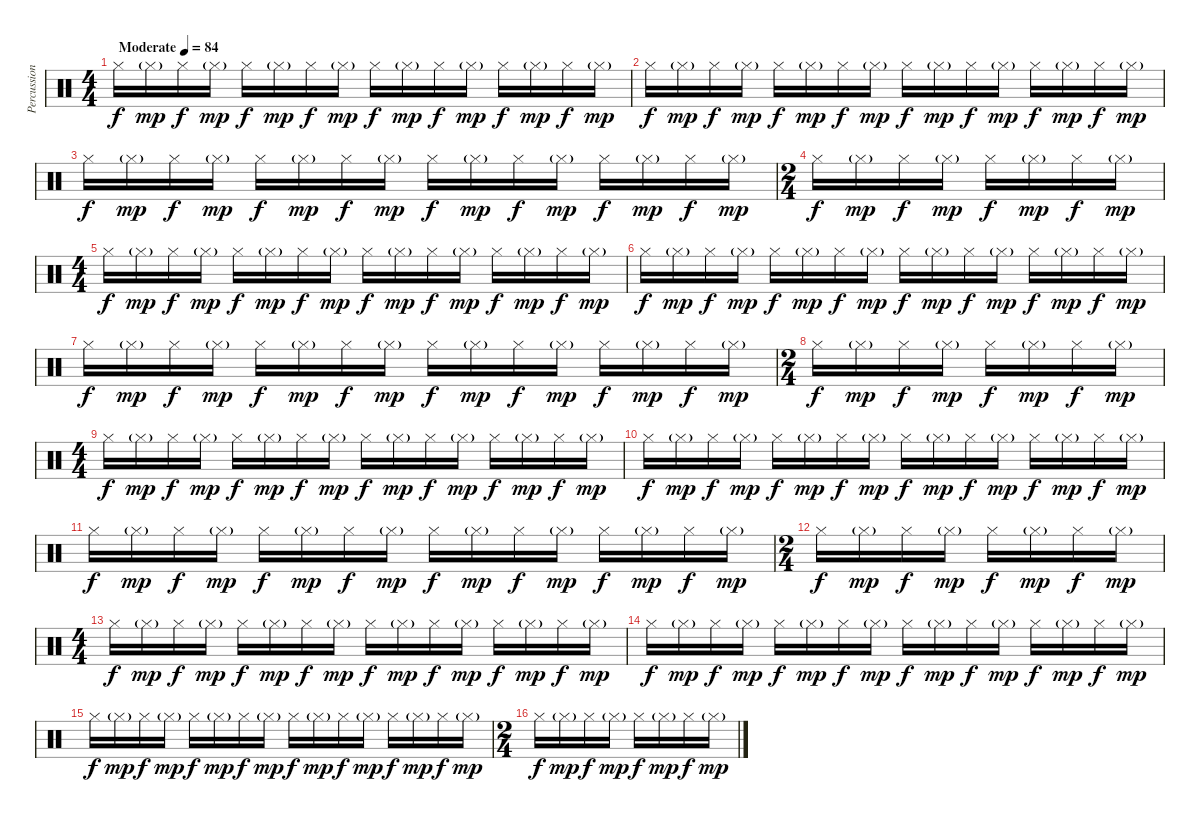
\track ("Percussion" "Percussion") {instrument percussion}
\staff {score}
\articulation defaults
\ts (4 4)
\tempo (84 "Moderate")
\clef neutral
\ks c "Hi-Hat (closed)".16{dy f} "Hi-Hat (closed)"{g}.16{dy mp} "Hi-Hat (closed)".16{dy f} "Hi-Hat (closed)"{g}.16{dy mp} "Hi-Hat (closed)".16{dy f} "Hi-Hat (closed)"{g}.16{dy mp} "Hi-Hat (closed)".16{dy f} "Hi-Hat (closed)"{g}.16{dy mp} "Hi-Hat (closed)".16{dy f} "Hi-Hat (closed)"{g}.16{dy mp} "Hi-Hat (closed)".16{dy f} "Hi-Hat (closed)"{g}.16{dy mp} "Hi-Hat (closed)".16{dy f} "Hi-Hat (closed)"{g}.16{dy mp} "Hi-Hat (closed)".16{dy f} "Hi-Hat (closed)"{g}.16{dy mp}
|
"Hi-Hat (closed)".16{dy f} "Hi-Hat (closed)"{g}.16{dy mp} "Hi-Hat (closed)".16{dy f} "Hi-Hat (closed)"{g}.16{dy mp} "Hi-Hat (closed)".16{dy f} "Hi-Hat (closed)"{g}.16{dy mp} "Hi-Hat (closed)".16{dy f} "Hi-Hat (closed)"{g}.16{dy mp} "Hi-Hat (closed)".16{dy f} "Hi-Hat (closed)"{g}.16{dy mp} "Hi-Hat (closed)".16{dy f} "Hi-Hat (closed)"{g}.16{dy mp} "Hi-Hat (closed)".16{dy f} "Hi-Hat (closed)"{g}.16{dy mp} "Hi-Hat (closed)".16{dy f} "Hi-Hat (closed)"{g}.16{dy mp} |
"Hi-Hat (closed)".16{dy f} "Hi-Hat (closed)"{g}.16{dy mp} "Hi-Hat (closed)".16{dy f} "Hi-Hat (closed)"{g}.16{dy mp} "Hi-Hat (closed)".16{dy f} "Hi-Hat (closed)"{g}.16{dy mp} "Hi-Hat (closed)".16{dy f} "Hi-Hat (closed)"{g}.16{dy mp} "Hi-Hat (closed)".16{dy f} "Hi-Hat (closed)"{g}.16{dy mp} "Hi-Hat (closed)".16{dy f} "Hi-Hat (closed)"{g}.16{dy mp} "Hi-Hat (closed)".16{dy f} "Hi-Hat (closed)"{g}.16{dy mp} "Hi-Hat (closed)".16{dy f} "Hi-Hat (closed)"{g}.16{dy mp} |
\ts (2 4)
"Hi-Hat (closed)".16{dy f} "Hi-Hat (closed)"{g}.16{dy mp} "Hi-Hat (closed)".16{dy f} "Hi-Hat (closed)"{g}.16{dy mp} "Hi-Hat (closed)".16{dy f} "Hi-Hat (closed)"{g}.16{dy mp} "Hi-Hat (closed)".16{dy f} "Hi-Hat (closed)"{g}.16{dy mp} |
\ts (4 4)
"Hi-Hat (closed)".16{dy f} "Hi-Hat (closed)"{g}.16{dy mp} "Hi-Hat (closed)".16{dy f} "Hi-Hat (closed)"{g}.16{dy mp} "Hi-Hat (closed)".16{dy f} "Hi-Hat (closed)"{g}.16{dy mp} "Hi-Hat (closed)".16{dy f} "Hi-Hat (closed)"{g}.16{dy mp} "Hi-Hat (closed)".16{dy f} "Hi-Hat (closed)"{g}.16{dy mp} "Hi-Hat (closed)".16{dy f} "Hi-Hat (closed)"{g}.16{dy mp} "Hi-Hat (closed)".16{dy f} "Hi-Hat (closed)"{g}.16{dy mp} "Hi-Hat (closed)".16{dy f} "Hi-Hat (closed)"{g}.16{dy mp} |
"Hi-Hat (closed)".16{dy f} "Hi-Hat (closed)"{g}.16{dy mp} "Hi-Hat (closed)".16{dy f} "Hi-Hat (closed)"{g}.16{dy mp} "Hi-Hat (closed)".16{dy f} "Hi-Hat (closed)"{g}.16{dy mp} "Hi-Hat (closed)".16{dy f} "Hi-Hat (closed)"{g}.16{dy mp} "Hi-Hat (closed)".16{dy f} "Hi-Hat (closed)"{g}.16{dy mp} "Hi-Hat (closed)".16{dy f} "Hi-Hat (closed)"{g}.16{dy mp} "Hi-Hat (closed)".16{dy f} "Hi-Hat (closed)"{g}.16{dy mp} "Hi-Hat (closed)".16{dy f} "Hi-Hat (closed)"{g}.16{dy mp} |
"Hi-Hat (closed)".16{dy f} "Hi-Hat (closed)"{g}.16{dy mp} "Hi-Hat (closed)".16{dy f} "Hi-Hat (closed)"{g}.16{dy mp} "Hi-Hat (closed)".16{dy f} "Hi-Hat (closed)"{g}.16{dy mp} "Hi-Hat (closed)".16{dy f} "Hi-Hat (closed)"{g}.16{dy mp} "Hi-Hat (closed)".16{dy f} "Hi-Hat (closed)"{g}.16{dy mp} "Hi-Hat (closed)".16{dy f} "Hi-Hat (closed)"{g}.16{dy mp} "Hi-Hat (closed)".16{dy f} "Hi-Hat (closed)"{g}.16{dy mp} "Hi-Hat (closed)".16{dy f} "Hi-Hat (closed)"{g}.16{dy mp} |
\ts (2 4)
"Hi-Hat (closed)".16{dy f} "Hi-Hat (closed)"{g}.16{dy mp} "Hi-Hat (closed)".16{dy f} "Hi-Hat (closed)"{g}.16{dy mp} "Hi-Hat (closed)".16{dy f} "Hi-Hat (closed)"{g}.16{dy mp} "Hi-Hat (closed)".16{dy f} "Hi-Hat (closed)"{g}.16{dy mp} |
\ts (4 4)
"Hi-Hat (closed)".16{dy f} "Hi-Hat (closed)"{g}.16{dy mp} "Hi-Hat (closed)".16{dy f} "Hi-Hat (closed)"{g}.16{dy mp} "Hi-Hat (closed)".16{dy f} "Hi-Hat (closed)"{g}.16{dy mp} "Hi-Hat (closed)".16{dy f} "Hi-Hat (closed)"{g}.16{dy mp} "Hi-Hat (closed)".16{dy f} "Hi-Hat (closed)"{g}.16{dy mp} "Hi-Hat (closed)".16{dy f} "Hi-Hat (closed)"{g}.16{dy mp} "Hi-Hat (closed)".16{dy f} "Hi-Hat (closed)"{g}.16{dy mp} "Hi-Hat (closed)".16{dy f} "Hi-Hat (closed)"{g}.16{dy mp} |
"Hi-Hat (closed)".16{dy f} "Hi-Hat (closed)"{g}.16{dy mp} "Hi-Hat (closed)".16{dy f} "Hi-Hat (closed)"{g}.16{dy mp} "Hi-Hat (closed)".16{dy f} "Hi-Hat (closed)"{g}.16{dy mp} "Hi-Hat (closed)".16{dy f} "Hi-Hat (closed)"{g}.16{dy mp} "Hi-Hat (closed)".16{dy f} "Hi-Hat (closed)"{g}.16{dy mp} "Hi-Hat (closed)".16{dy f} "Hi-Hat (closed)"{g}.16{dy mp} "Hi-Hat (closed)".16{dy f} "Hi-Hat (closed)"{g}.16{dy mp} "Hi-Hat (closed)".16{dy f} "Hi-Hat (closed)"{g}.16{dy mp} |
"Hi-Hat (closed)".16{dy f} "Hi-Hat (closed)"{g}.16{dy mp} "Hi-Hat (closed)".16{dy f} "Hi-Hat (closed)"{g}.16{dy mp} "Hi-Hat (closed)".16{dy f} "Hi-Hat (closed)"{g}.16{dy mp} "Hi-Hat (closed)".16{dy f} "Hi-Hat (closed)"{g}.16{dy mp} "Hi-Hat (closed)".16{dy f} "Hi-Hat (closed)"{g}.16{dy mp} "Hi-Hat (closed)".16{dy f} "Hi-Hat (closed)"{g}.16{dy mp} "Hi-Hat (closed)".16{dy f} "Hi-Hat (closed)"{g}.16{dy mp} "Hi-Hat (closed)".16{dy f} "Hi-Hat (closed)"{g}.16{dy mp} |
\ts (2 4)
"Hi-Hat (closed)".16{dy f} "Hi-Hat (closed)"{g}.16{dy mp} "Hi-Hat (closed)".16{dy f} "Hi-Hat (closed)"{g}.16{dy mp} "Hi-Hat (closed)".16{dy f} "Hi-Hat (closed)"{g}.16{dy mp} "Hi-Hat (closed)".16{dy f} "Hi-Hat (closed)"{g}.16{dy mp} |
\ts (4 4)
"Hi-Hat (closed)".16{dy f} "Hi-Hat (closed)"{g}.16{dy mp} "Hi-Hat (closed)".16{dy f} "Hi-Hat (closed)"{g}.16{dy mp} "Hi-Hat (closed)".16{dy f} "Hi-Hat (closed)"{g}.16{dy mp} "Hi-Hat (closed)".16{dy f} "Hi-Hat (closed)"{g}.16{dy mp} "Hi-Hat (closed)".16{dy f} "Hi-Hat (closed)"{g}.16{dy mp} "Hi-Hat (closed)".16{dy f} "Hi-Hat (closed)"{g}.16{dy mp} "Hi-Hat (closed)".16{dy f} "Hi-Hat (closed)"{g}.16{dy mp} "Hi-Hat (closed)".16{dy f} "Hi-Hat (closed)"{g}.16{dy mp} |
"Hi-Hat (closed)".16{dy f} "Hi-Hat (closed)"{g}.16{dy mp} "Hi-Hat (closed)".16{dy f} "Hi-Hat (closed)"{g}.16{dy mp} "Hi-Hat (closed)".16{dy f} "Hi-Hat (closed)"{g}.16{dy mp} "Hi-Hat (closed)".16{dy f} "Hi-Hat (closed)"{g}.16{dy mp} "Hi-Hat (closed)".16{dy f} "Hi-Hat (closed)"{g}.16{dy mp} "Hi-Hat (closed)".16{dy f} "Hi-Hat (closed)"{g}.16{dy mp} "Hi-Hat (closed)".16{dy f} "Hi-Hat (closed)"{g}.16{dy mp} "Hi-Hat (closed)".16{dy f} "Hi-Hat (closed)"{g}.16{dy mp} |
"Hi-Hat (closed)".16{dy f} "Hi-Hat (closed)"{g}.16{dy mp} "Hi-Hat (closed)".16{dy f} "Hi-Hat (closed)"{g}.16{dy mp} "Hi-Hat (closed)".16{dy f} "Hi-Hat (closed)"{g}.16{dy mp} "Hi-Hat (closed)".16{dy f} "Hi-Hat (closed)"{g}.16{dy mp} "Hi-Hat (closed)".16{dy f} "Hi-Hat (closed)"{g}.16{dy mp} "Hi-Hat (closed)".16{dy f} "Hi-Hat (closed)"{g}.16{dy mp} "Hi-Hat (closed)".16{dy f} "Hi-Hat (closed)"{g}.16{dy mp} "Hi-Hat (closed)".16{dy f} "Hi-Hat (closed)"{g}.16{dy mp} |
\ts (2 4)
"Hi-Hat (closed)".16{dy f} "Hi-Hat (closed)"{g}.16{dy mp} "Hi-Hat (closed)".16{dy f} "Hi-Hat (closed)"{g}.16{dy mp} "Hi-Hat (closed)".16{dy f} "Hi-Hat (closed)"{g}.16{dy mp} "Hi-Hat (closed)".16{dy f} "Hi-Hat (closed)"{g}.16{dy mp}
